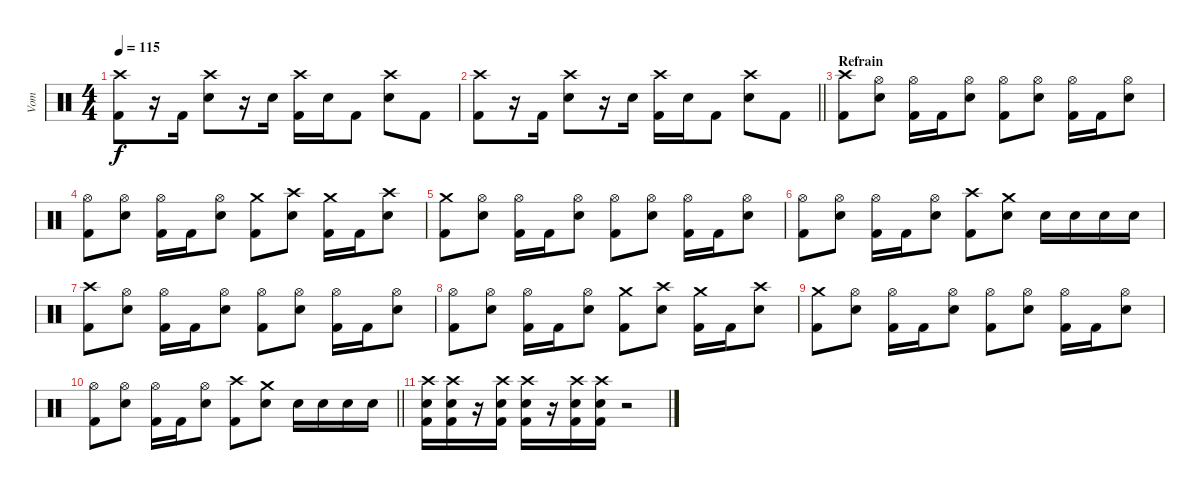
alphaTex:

\track ("Vom" "Vom") {instrument percussion}
\staff {score}
\articulation defaults
\ts (4 4)
\tempo 115
\clef neutral
\ks c
("Crash high (hit)" "Kick (hit) 2").8{dy f} r.16 "Kick (hit) 2".16 ("Crash high (hit)" "Snare (hit) 2").8 r.16 "Snare (hit) 2".16 ("Crash high (hit)" "Kick (hit) 2").16 "Snare (hit) 2".16 "Kick (hit) 2".8 ("Crash high (hit)" "Snare (hit) 2").8 "Kick (hit) 2".8 |
\barLineRight lightlight
("Crash high (hit)" "Kick (hit) 2").8 r.16 "Kick (hit) 2".16 ("Crash high (hit)" "Snare (hit) 2").8 r.16 "Snare (hit) 2".16 ("Crash high (hit)" "Kick (hit) 2").16 "Snare (hit) 2".16 "Kick (hit) 2".8 ("Crash high (hit)" "Snare (hit) 2").8 "Kick (hit) 2".8 |
\section ("" "Refrain")
("Crash high (hit)" "Kick (hit) 2").8 ("Hi-Hat (open)" "Snare (hit) 2").8 ("Hi-Hat (open)" "Kick (hit) 2").16 "Kick (hit) 2".16 ("Hi-Hat (open)" "Snare (hit) 2").8 ("Hi-Hat (open)" "Kick (hit) 2").8 ("Hi-Hat (open)" "Snare (hit) 2").8 ("Hi-Hat (open)" "Kick (hit) 2").16 "Kick (hit) 2".16 ("Hi-Hat (open)" "Snare (hit) 2").8 |
("Hi-Hat (open)" "Kick (hit) 2").8 ("Hi-Hat (open)" "Snare (hit) 2").8 ("Hi-Hat (open)" "Kick (hit) 2").16 "Kick (hit) 2".16 ("Hi-Hat (open)" "Snare (hit) 2").8 ("Crash medium (hit)" "Kick (hit) 2").8 ("Crash high (hit)" "Snare (hit) 2").8 ("Crash medium (hit)" "Kick (hit) 2").16 "Kick (hit) 2".16 ("Crash high (hit)" "Snare (hit) 2").8 |
("Crash medium (hit)" "Kick (hit) 2").8 ("Hi-Hat (open)" "Snare (hit) 2").8 ("Hi-Hat (open)" "Kick (hit) 2").16 "Kick (hit) 2".16 ("Hi-Hat (open)" "Snare (hit) 2").8 ("Hi-Hat (open)" "Kick (hit) 2").8 ("Hi-Hat (open)" "Snare (hit) 2").8 ("Hi-Hat (open)" "Kick (hit) 2").16 "Kick (hit) 2".16 ("Hi-Hat (open)" "Snare (hit) 2").8 |
("Hi-Hat (open)" "Kick (hit) 2").8 ("Hi-Hat (open)" "Snare (hit) 2").8 ("Hi-Hat (open)" "Kick (hit) 2").16 "Kick (hit) 2".16 ("Hi-Hat (open)" "Snare (hit) 2").8 ("Crash high (hit)" "Kick (hit) 2").8 ("Crash medium (hit)" "Snare (hit) 2").8 "Snare (hit) 2".16 "Snare (hit) 2".16 "Snare (hit) 2".16 "Snare (hit) 2".16 |
("Crash high (hit)" "Kick (hit) 2").8 ("Hi-Hat (open)" "Snare (hit) 2").8 ("Hi-Hat (open)" "Kick (hit) 2").16 "Kick (hit) 2".16 ("Hi-Hat (open)" "Snare (hit) 2").8 ("Hi-Hat (open)" "Kick (hit) 2").8 ("Hi-Hat (open)" "Snare (hit) 2").8 ("Hi-Hat (open)" "Kick (hit) 2").16 "Kick (hit) 2".16 ("Hi-Hat (open)" "Snare (hit) 2").8 |
("Hi-Hat (open)" "Kick (hit) 2").8 ("Hi-Hat (open)" "Snare (hit) 2").8 ("Hi-Hat (open)" "Kick (hit) 2").16 "Kick (hit) 2".16 ("Hi-Hat (open)" "Snare (hit) 2").8 ("Crash medium (hit)" "Kick (hit) 2").8 ("Crash high (hit)" "Snare (hit) 2").8 ("Crash medium (hit)" "Kick (hit) 2").16 "Kick (hit) 2".16 ("Crash high (hit)" "Snare (hit) 2").8 |
("Crash medium (hit)" "Kick (hit) 2").8 ("Hi-Hat (open)" "Snare (hit) 2").8 ("Hi-Hat (open)" "Kick (hit) 2").16 "Kick (hit) 2".16 ("Hi-Hat (open)" "Snare (hit) 2").8 ("Hi-Hat (open)" "Kick (hit) 2").8 ("Hi-Hat (open)" "Snare (hit) 2").8 ("Hi-Hat (open)" "Kick (hit) 2").16 "Kick (hit) 2".16 ("Hi-Hat (open)" "Snare (hit) 2").8 |
\barLineRight lightlight
("Hi-Hat (open)" "Kick (hit) 2").8 ("Hi-Hat (open)" "Snare (hit) 2").8 ("Hi-Hat (open)" "Kick (hit) 2").16 "Kick (hit) 2".16 ("Hi-Hat (open)" "Snare (hit) 2").8 ("Crash high (hit)" "Kick (hit) 2").8 ("Crash medium (hit)" "Snare (hit) 2").8 "Snare (hit) 2".16 "Snare (hit) 2".16 "Snare (hit) 2".16 "Snare (hit) 2".16 |
("Crash high (hit)" "Snare (hit) 2" "Kick (hit) 2").16 ("Crash high (hit)" "Snare (hit) 2" "Kick (hit) 2").16 r.16 ("Crash high (hit)" "Snare (hit) 2" "Kick (hit) 2").16 ("Crash high (hit)" "Snare (hit) 2" "Kick (hit) 2").16 r.16 ("Crash high (hit)" "Snare (hit) 2" "Kick (hit) 2").16 ("Crash high (hit)" "Snare (hit) 2" "Kick (hit) 2").16 r.2
